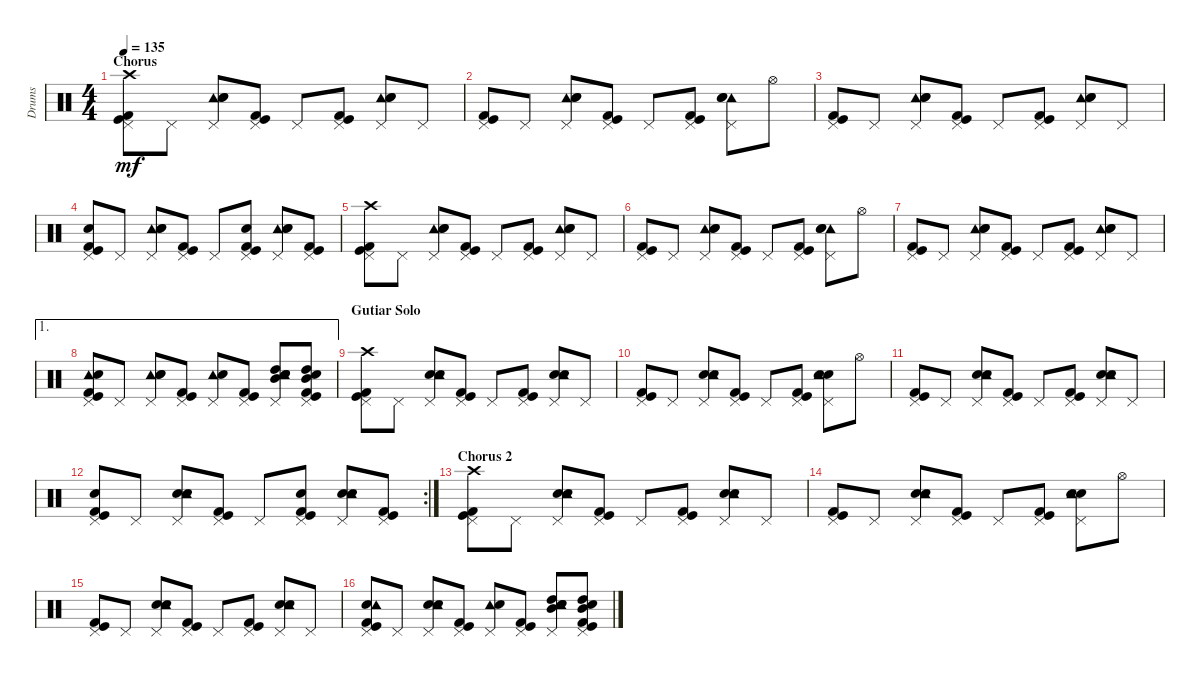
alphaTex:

\track ("Drums" "Drums") {instrument percussion}
\staff {score}
\articulation defaults
\ts (4 4)
\section ("" "Chorus")
\tempo 135
\clef neutral
\ks c
("Pedal Hi-Hat (hit)" "Kick (hit) 2" "Kick (hit)" "Crash high (hit)").8{dy mf} "Pedal Hi-Hat (hit)".8 ("Tambourine (hit)" "Snare (hit) 2" "Electric Snare (hit)" "Pedal Hi-Hat (hit)").8 ("Kick (hit) 2" "Kick (hit)" "Pedal Hi-Hat (hit)").8 "Pedal Hi-Hat (hit)".8 ("Kick (hit)" "Pedal Hi-Hat (hit)" "Kick (hit) 2").8 ("Tambourine (hit)" "Electric Snare (hit)" "Pedal Hi-Hat (hit)" "Snare (hit) 2").8 "Pedal Hi-Hat (hit)".8 |
("Kick (hit) 2" "Kick (hit)" "Pedal Hi-Hat (hit)").8 "Pedal Hi-Hat (hit)".8 ("Tambourine (hit)" "Electric Snare (hit)" "Snare (hit) 2" "Pedal Hi-Hat (hit)").8 ("Kick (hit) 2" "Kick (hit)" "Pedal Hi-Hat (hit)").8 "Pedal Hi-Hat (hit)".8 ("Kick (hit) 2" "Kick (hit)" "Pedal Hi-Hat (hit)").8 ("Tambourine (hit)" "Electric Snare (hit)" "Snare (hit) 2" "Pedal Hi-Hat (hit)").8 "Hi-Hat (open)".8 |
("Kick (hit) 2" "Kick (hit)" "Pedal Hi-Hat (hit)").8 "Pedal Hi-Hat (hit)".8 ("Tambourine (hit)" "Electric Snare (hit)" "Snare (hit) 2" "Pedal Hi-Hat (hit)").8 ("Kick (hit) 2" "Kick (hit)" "Pedal Hi-Hat (hit)").8 "Pedal Hi-Hat (hit)".8 ("Kick (hit) 2" "Kick (hit)" "Pedal Hi-Hat (hit)").8 ("Tambourine (hit)" "Electric Snare (hit)" "Snare (hit) 2" "Pedal Hi-Hat (hit)").8 "Pedal Hi-Hat (hit)".8 |
("Electric Snare (hit)" "Kick (hit)" "Kick (hit) 2" "Pedal Hi-Hat (hit)").8 "Pedal Hi-Hat (hit)".8 ("Tambourine (hit)" "Snare (hit) 2" "Pedal Hi-Hat (hit)" "Electric Snare (hit)").8 ("Kick (hit) 2" "Kick (hit)" "Pedal Hi-Hat (hit)").8 "Pedal Hi-Hat (hit)".8 ("Electric Snare (hit)" "Kick (hit)" "Pedal Hi-Hat (hit)" "Kick (hit) 2").8 ("Tambourine (hit)" "Snare (hit) 2" "Pedal Hi-Hat (hit)" "Electric Snare (hit)").8 ("Kick (hit)" "Kick (hit) 2" "Pedal Hi-Hat (hit)").8 |
("Kick (hit) 2" "Kick (hit)" "Pedal Hi-Hat (hit)" "Crash high (hit)").8 "Pedal Hi-Hat (hit)".8 ("Tambourine (hit)" "Pedal Hi-Hat (hit)" "Snare (hit) 2" "Electric Snare (hit)").8 ("Kick (hit)" "Kick (hit) 2" "Pedal Hi-Hat (hit)").8 "Pedal Hi-Hat (hit)".8 ("Pedal Hi-Hat (hit)" "Kick (hit) 2" "Kick (hit)").8 ("Tambourine (hit)" "Electric Snare (hit)" "Snare (hit) 2" "Pedal Hi-Hat (hit)").8 "Pedal Hi-Hat (hit)".8 |
("Pedal Hi-Hat (hit)" "Kick (hit) 2" "Kick (hit)").8 "Pedal Hi-Hat (hit)".8 ("Tambourine (hit)" "Electric Snare (hit)" "Pedal Hi-Hat (hit)" "Snare (hit) 2").8 ("Kick (hit) 2" "Kick (hit)" "Pedal Hi-Hat (hit)").8 "Pedal Hi-Hat (hit)".8 ("Kick (hit) 2" "Pedal Hi-Hat (hit)" "Kick (hit)").8 ("Tambourine (hit)" "Electric Snare (hit)" "Snare (hit) 2" "Pedal Hi-Hat (hit)").8 "Hi-Hat (open)".8 |
("Pedal Hi-Hat (hit)" "Kick (hit)" "Kick (hit) 2").8 "Pedal Hi-Hat (hit)".8 ("Tambourine (hit)" "Pedal Hi-Hat (hit)" "Snare (hit) 2" "Electric Snare (hit)").8 ("Pedal Hi-Hat (hit)" "Kick (hit)" "Kick (hit) 2").8 "Pedal Hi-Hat (hit)".8 ("Kick (hit) 2" "Kick (hit)" "Pedal Hi-Hat (hit)").8 ("Tambourine (hit)" "Pedal Hi-Hat (hit)" "Electric Snare (hit)" "Snare (hit) 2").8 "Pedal Hi-Hat (hit)".8 |
\ae 1
("Tambourine (hit)" "Electric Snare (hit)" "Pedal Hi-Hat (hit)" "Kick (hit)" "Kick (hit) 2").8 "Pedal Hi-Hat (hit)".8 ("Tambourine (hit)" "Snare (hit) 2" "Pedal Hi-Hat (hit)" "Electric Snare (hit)").8 ("Kick (hit) 2" "Kick (hit)" "Pedal Hi-Hat (hit)").8 ("Tambourine (hit)" "Electric Snare (hit)" "Pedal Hi-Hat (hit)").8 ("Kick (hit)" "Kick (hit) 2" "Pedal Hi-Hat (hit)").8 ("High Tom (hit)" "Mid Tom (hit)" "Tambourine (hit)" "Snare (hit) 2" "Electric Snare (hit)" "Pedal Hi-Hat (hit)").8 ("High Tom (hit)" "Mid Tom (hit)" "Electric Snare (hit)" "Kick (hit)" "Pedal Hi-Hat (hit)" "Kick (hit) 2").8 |
\section ("" "Gutiar Solo")
("Crash high (hit)" "Kick (hit)" "Kick (hit) 2" "Pedal Hi-Hat (hit)").8 "Pedal Hi-Hat (hit)".8 ("Pedal Hi-Hat (hit)" "Electric Snare (hit)" "Snare (hit) 2" "Tambourine (hit)").8 ("Pedal Hi-Hat (hit)" "Kick (hit)" "Kick (hit) 2").8 "Pedal Hi-Hat (hit)".8 ("Kick (hit) 2" "Pedal Hi-Hat (hit)" "Kick (hit)").8 ("Snare (hit) 2" "Pedal Hi-Hat (hit)" "Electric Snare (hit)" "Tambourine (hit)").8 "Pedal Hi-Hat (hit)".8 |
("Pedal Hi-Hat (hit)" "Kick (hit)" "Kick (hit) 2").8 "Pedal Hi-Hat (hit)".8 ("Pedal Hi-Hat (hit)" "Snare (hit) 2" "Electric Snare (hit)" "Tambourine (hit)").8 ("Pedal Hi-Hat (hit)" "Kick (hit)" "Kick (hit) 2").8 "Pedal Hi-Hat (hit)".8 ("Pedal Hi-Hat (hit)" "Kick (hit)" "Kick (hit) 2").8 ("Pedal Hi-Hat (hit)" "Snare (hit) 2" "Electric Snare (hit)" "Tambourine (hit)").8 "Hi-Hat (open)".8 |
("Pedal Hi-Hat (hit)" "Kick (hit)" "Kick (hit) 2").8 "Pedal Hi-Hat (hit)".8 ("Pedal Hi-Hat (hit)" "Snare (hit) 2" "Electric Snare (hit)" "Tambourine (hit)").8 ("Pedal Hi-Hat (hit)" "Kick (hit)" "Kick (hit) 2").8 "Pedal Hi-Hat (hit)".8 ("Pedal Hi-Hat (hit)" "Kick (hit)" "Kick (hit) 2").8 ("Pedal Hi-Hat (hit)" "Snare (hit) 2" "Electric Snare (hit)" "Tambourine (hit)").8 "Pedal Hi-Hat (hit)".8 |
\rc 2
("Pedal Hi-Hat (hit)" "Kick (hit) 2" "Kick (hit)" "Electric Snare (hit)").8 "Pedal Hi-Hat (hit)".8 ("Electric Snare (hit)" "Pedal Hi-Hat (hit)" "Snare (hit) 2" "Tambourine (hit)").8 ("Pedal Hi-Hat (hit)" "Kick (hit)" "Kick (hit) 2").8 "Pedal Hi-Hat (hit)".8 ("Kick (hit) 2" "Pedal Hi-Hat (hit)" "Kick (hit)" "Electric Snare (hit)").8 ("Electric Snare (hit)" "Pedal Hi-Hat (hit)" "Snare (hit) 2" "Tambourine (hit)").8 ("Pedal Hi-Hat (hit)" "Kick (hit) 2" "Kick (hit)").8 |
\section ("" "Chorus 2")
("Crash high (hit)" "Pedal Hi-Hat (hit)" "Kick (hit)" "Kick (hit) 2").8 "Pedal Hi-Hat (hit)".8 ("Electric Snare (hit)" "Snare (hit) 2" "Pedal Hi-Hat (hit)" "Tambourine (hit)").8 ("Pedal Hi-Hat (hit)" "Kick (hit) 2" "Kick (hit)").8 "Pedal Hi-Hat (hit)".8 ("Kick (hit)" "Kick (hit) 2" "Pedal Hi-Hat (hit)").8 ("Pedal Hi-Hat (hit)" "Snare (hit) 2" "Electric Snare (hit)" "Tambourine (hit)").8 "Pedal Hi-Hat (hit)".8 |
("Kick (hit)" "Kick (hit) 2" "Pedal Hi-Hat (hit)").8 "Pedal Hi-Hat (hit)".8 ("Snare (hit) 2" "Pedal Hi-Hat (hit)" "Electric Snare (hit)" "Tambourine (hit)").8 ("Pedal Hi-Hat (hit)" "Kick (hit)" "Kick (hit) 2").8 "Pedal Hi-Hat (hit)".8 ("Kick (hit)" "Pedal Hi-Hat (hit)" "Kick (hit) 2").8 ("Pedal Hi-Hat (hit)" "Snare (hit) 2" "Electric Snare (hit)" "Tambourine (hit)").8 "Hi-Hat (open)".8 |
("Kick (hit) 2" "Kick (hit)" "Pedal Hi-Hat (hit)").8 "Pedal Hi-Hat (hit)".8 ("Electric Snare (hit)" "Snare (hit) 2" "Pedal Hi-Hat (hit)" "Tambourine (hit)").8 ("Kick (hit) 2" "Kick (hit)" "Pedal Hi-Hat (hit)").8 "Pedal Hi-Hat (hit)".8 ("Pedal Hi-Hat (hit)" "Kick (hit)" "Kick (hit) 2").8 ("Snare (hit) 2" "Electric Snare (hit)" "Pedal Hi-Hat (hit)" "Tambourine (hit)").8 "Pedal Hi-Hat (hit)".8 |
("Kick (hit) 2" "Kick (hit)" "Pedal Hi-Hat (hit)" "Electric Snare (hit)" "Tambourine (hit)").8 "Pedal Hi-Hat (hit)".8 ("Electric Snare (hit)" "Pedal Hi-Hat (hit)" "Snare (hit) 2" "Tambourine (hit)").8 ("Pedal Hi-Hat (hit)" "Kick (hit)" "Kick (hit) 2").8 ("Tambourine (hit)" "Pedal Hi-Hat (hit)" "Electric Snare (hit)").8 ("Pedal Hi-Hat (hit)" "Kick (hit) 2" "Kick (hit)").8 ("Pedal Hi-Hat (hit)" "Electric Snare (hit)" "Snare (hit) 2" "Tambourine (hit)" "Mid Tom (hit)" "High Tom (hit)").8 ("Kick (hit) 2" "Pedal Hi-Hat (hit)" "Kick (hit)" "Electric Snare (hit)" "Mid Tom (hit)" "High Tom (hit)").8
